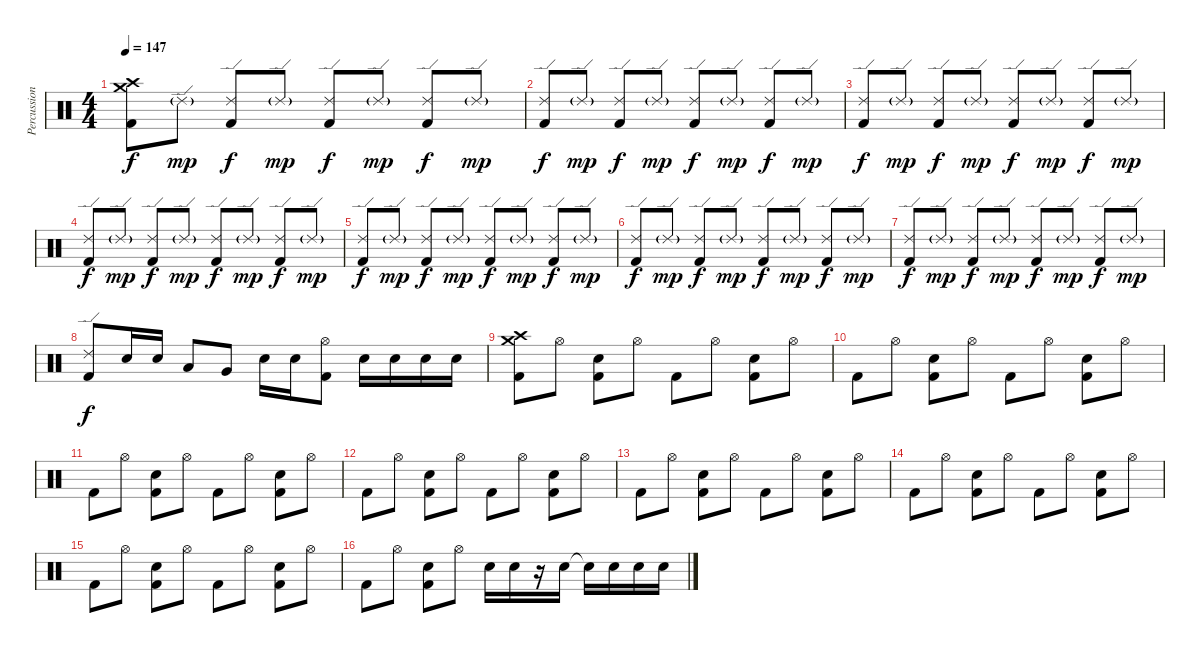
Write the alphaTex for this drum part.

\track ("Percussion" "Percussion") {instrument percussion}
\staff {score}
\articulation defaults
\ts (4 4)
\tempo 147
\clef neutral
\ks c
("Crash medium (hit)" "Kick (hit) 2" "Crash high (hit)").8{dy f} "Ride (edge) 2"{g}.8{dy mp} ("Ride (edge) 2" "Kick (hit) 2").8{dy f} "Ride (edge) 2"{g}.8{dy mp} ("Ride (edge) 2" "Kick (hit) 2").8{dy f} "Ride (edge) 2"{g}.8{dy mp} ("Ride (edge) 2" "Kick (hit) 2").8{dy f} "Ride (edge) 2"{g}.8{dy mp} |
("Ride (edge) 2" "Kick (hit) 2").8{dy f} "Ride (edge) 2"{g}.8{dy mp} ("Ride (edge) 2" "Kick (hit) 2").8{dy f} "Ride (edge) 2"{g}.8{dy mp} ("Ride (edge) 2" "Kick (hit) 2").8{dy f} "Ride (edge) 2"{g}.8{dy mp} ("Ride (edge) 2" "Kick (hit) 2").8{dy f} "Ride (edge) 2"{g}.8{dy mp} |
("Ride (edge) 2" "Kick (hit) 2").8{dy f} "Ride (edge) 2"{g}.8{dy mp} ("Ride (edge) 2" "Kick (hit) 2").8{dy f} "Ride (edge) 2"{g}.8{dy mp} ("Ride (edge) 2" "Kick (hit) 2").8{dy f} "Ride (edge) 2"{g}.8{dy mp} ("Ride (edge) 2" "Kick (hit) 2").8{dy f} "Ride (edge) 2"{g}.8{dy mp} |
("Ride (edge) 2" "Kick (hit) 2").8{dy f} "Ride (edge) 2"{g}.8{dy mp} ("Ride (edge) 2" "Kick (hit) 2").8{dy f} "Ride (edge) 2"{g}.8{dy mp} ("Ride (edge) 2" "Kick (hit) 2").8{dy f} "Ride (edge) 2"{g}.8{dy mp} ("Ride (edge) 2" "Kick (hit) 2").8{dy f} "Ride (edge) 2"{g}.8{dy mp} |
("Ride (edge) 2" "Kick (hit) 2").8{dy f} "Ride (edge) 2"{g}.8{dy mp} ("Ride (edge) 2" "Kick (hit) 2").8{dy f} "Ride (edge) 2"{g}.8{dy mp} ("Ride (edge) 2" "Kick (hit) 2").8{dy f} "Ride (edge) 2"{g}.8{dy mp} ("Ride (edge) 2" "Kick (hit) 2").8{dy f} "Ride (edge) 2"{g}.8{dy mp} |
("Ride (edge) 2" "Kick (hit) 2").8{dy f} "Ride (edge) 2"{g}.8{dy mp} ("Ride (edge) 2" "Kick (hit) 2").8{dy f} "Ride (edge) 2"{g}.8{dy mp} ("Ride (edge) 2" "Kick (hit) 2").8{dy f} "Ride (edge) 2"{g}.8{dy mp} ("Ride (edge) 2" "Kick (hit) 2").8{dy f} "Ride (edge) 2"{g}.8{dy mp} |
("Ride (edge) 2" "Kick (hit) 2").8{dy f} "Ride (edge) 2"{g}.8{dy mp} ("Ride (edge) 2" "Kick (hit) 2").8{dy f} "Ride (edge) 2"{g}.8{dy mp} ("Ride (edge) 2" "Kick (hit) 2").8{dy f} "Ride (edge) 2"{g}.8{dy mp} ("Ride (edge) 2" "Kick (hit) 2").8{dy f} "Ride (edge) 2"{g}.8{dy mp} |
("Ride (edge) 2" "Kick (hit) 2").8{dy f} "Electric Snare (hit)".16 "Electric Snare (hit)".16 "Low Tom (hit)".8 "Very Low Tom (hit)".8 "Electric Snare (hit)".16 "Electric Snare (hit)".16 ("Hi-Hat (open)" "Kick (hit) 2").8 "Electric Snare (hit)".16 "Electric Snare (hit)".16 "Electric Snare (hit)".16 "Electric Snare (hit)".16 |
("Crash medium (hit)" "Kick (hit) 2" "Crash high (hit)").8 "Hi-Hat (open)".8 ("Electric Snare (hit)" "Kick (hit) 2").8 "Hi-Hat (open)".8 "Kick (hit) 2".8 "Hi-Hat (open)".8 ("Electric Snare (hit)" "Kick (hit) 2").8 "Hi-Hat (open)".8 |
"Kick (hit) 2".8 "Hi-Hat (open)".8 ("Electric Snare (hit)" "Kick (hit) 2").8 "Hi-Hat (open)".8 "Kick (hit) 2".8 "Hi-Hat (open)".8 ("Electric Snare (hit)" "Kick (hit) 2").8 "Hi-Hat (open)".8 |
"Kick (hit) 2".8 "Hi-Hat (open)".8 ("Electric Snare (hit)" "Kick (hit) 2").8 "Hi-Hat (open)".8 "Kick (hit) 2".8 "Hi-Hat (open)".8 ("Electric Snare (hit)" "Kick (hit) 2").8 "Hi-Hat (open)".8 |
"Kick (hit) 2".8 "Hi-Hat (open)".8 ("Electric Snare (hit)" "Kick (hit) 2").8 "Hi-Hat (open)".8 "Kick (hit) 2".8 "Hi-Hat (open)".8 ("Electric Snare (hit)" "Kick (hit) 2").8 "Hi-Hat (open)".8 |
"Kick (hit) 2".8 "Hi-Hat (open)".8 ("Electric Snare (hit)" "Kick (hit) 2").8 "Hi-Hat (open)".8 "Kick (hit) 2".8 "Hi-Hat (open)".8 ("Electric Snare (hit)" "Kick (hit) 2").8 "Hi-Hat (open)".8 |
"Kick (hit) 2".8 "Hi-Hat (open)".8 ("Electric Snare (hit)" "Kick (hit) 2").8 "Hi-Hat (open)".8 "Kick (hit) 2".8 "Hi-Hat (open)".8 ("Electric Snare (hit)" "Kick (hit) 2").8 "Hi-Hat (open)".8 |
"Kick (hit) 2".8 "Hi-Hat (open)".8 ("Electric Snare (hit)" "Kick (hit) 2").8 "Hi-Hat (open)".8 "Kick (hit) 2".8 "Hi-Hat (open)".8 ("Electric Snare (hit)" "Kick (hit) 2").8 "Hi-Hat (open)".8 |
"Kick (hit) 2".8 "Hi-Hat (open)".8 ("Electric Snare (hit)" "Kick (hit) 2").8 "Hi-Hat (open)".8 "Electric Snare (hit)".16 "Electric Snare (hit)".16 r.16 "Electric Snare (hit)".16 "Electric Snare (hit)"{t}.16 "Electric Snare (hit)".16 "Electric Snare (hit)".16 "Electric Snare (hit)".16
